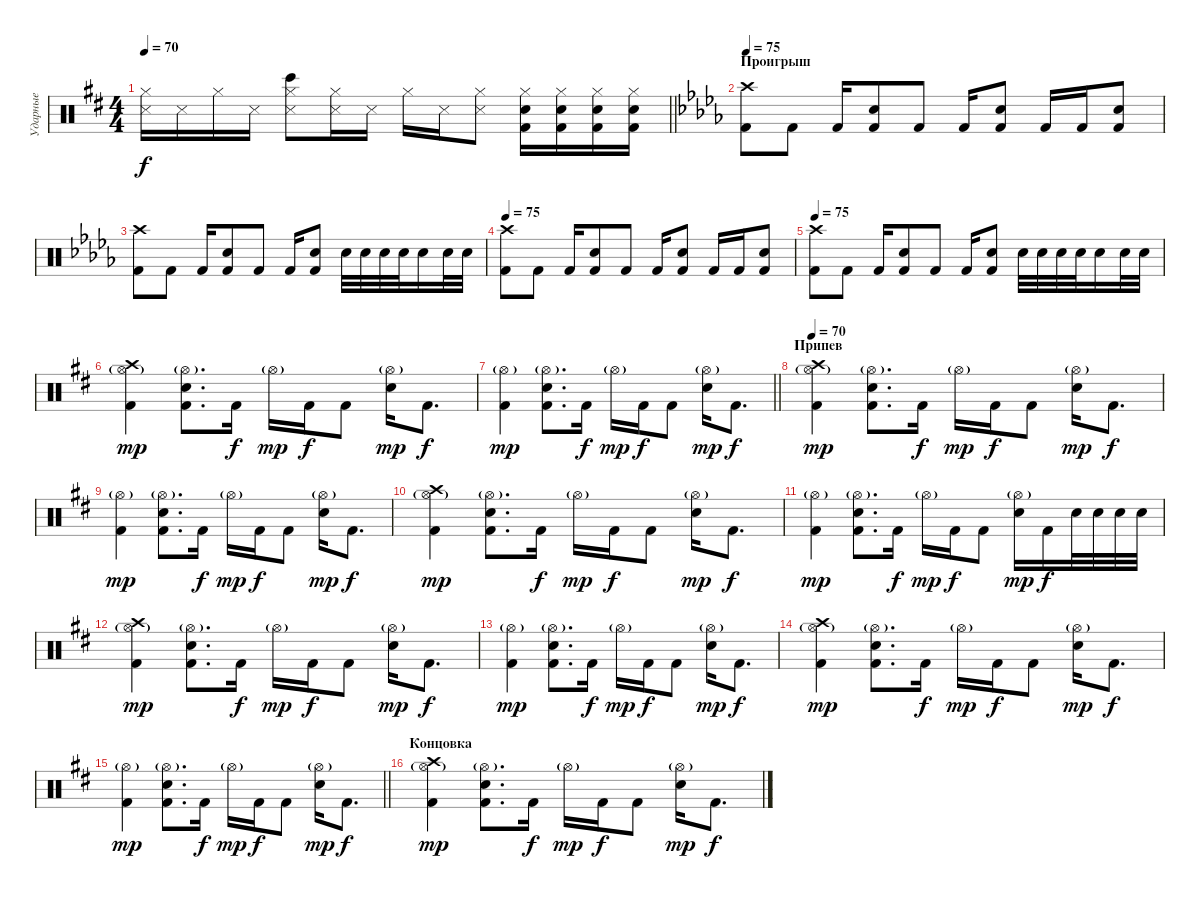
\track ("Ударные" "Ударные") {instrument percussion}
\staff {score}
\articulation defaults
\ts (4 4)
\tempo 70
\clef neutral
\barLineRight lightlight
\ks bminor
("Hi-Hat (closed)" "Snare (side stick) 3").16{dy f} "Snare (side stick) 3".16 "Hi-Hat (closed)".16 "Snare (side stick) 3".16 ("Hi-Hat (closed)" "Bongo High (hit)" "Snare (side stick) 3").8 ("Hi-Hat (closed)" "Snare (side stick) 3").16 "Snare (side stick) 3".16 "Hi-Hat (closed)".16 "Snare (side stick) 3".16 ("Hi-Hat (closed)" "Snare (side stick) 3").8 ("Hi-Hat (closed)" "Electric Snare (hit)" "Kick (hit) 2").16 ("Hi-Hat (closed)" "Electric Snare (hit)" "Kick (hit) 2").16 ("Hi-Hat (closed)" "Electric Snare (hit)" "Kick (hit) 2").16 ("Hi-Hat (closed)" "Electric Snare (hit)" "Kick (hit) 2").16 |
\section ("" "Проигрыш")
\tempo 75
\ks bbminor
("Crash high (hit)" "Kick (hit) 2").8 "Kick (hit) 2".8 "Kick (hit) 2".16 ("Electric Snare (hit)" "Kick (hit) 2").8 "Kick (hit) 2".8 "Kick (hit) 2".16 ("Electric Snare (hit)" "Kick (hit) 2").8 "Kick (hit) 2".16 "Kick (hit) 2".16 ("Electric Snare (hit)" "Kick (hit) 2").8 |
("Crash high (hit)" "Kick (hit) 2").8 "Kick (hit) 2".8 "Kick (hit) 2".16 ("Electric Snare (hit)" "Kick (hit) 2").8 "Kick (hit) 2".8 "Kick (hit) 2".16 ("Electric Snare (hit)" "Kick (hit) 2").8 "Electric Snare (hit)".32 "Electric Snare (hit)".32 "Electric Snare (hit)".32 "Electric Snare (hit)".32 "Electric Snare (hit)".16 "Electric Snare (hit)".32 "Electric Snare (hit)".32 |
\tempo 75
("Crash high (hit)" "Kick (hit) 2").8 "Kick (hit) 2".8 "Kick (hit) 2".16 ("Electric Snare (hit)" "Kick (hit) 2").8 "Kick (hit) 2".8 "Kick (hit) 2".16 ("Electric Snare (hit)" "Kick (hit) 2").8 "Kick (hit) 2".16 "Kick (hit) 2".16 ("Electric Snare (hit)" "Kick (hit) 2").8 |
\tempo 75
("Crash high (hit)" "Kick (hit) 2").8 "Kick (hit) 2".8 "Kick (hit) 2".16 ("Electric Snare (hit)" "Kick (hit) 2").8 "Kick (hit) 2".8 "Kick (hit) 2".16 ("Electric Snare (hit)" "Kick (hit) 2").8 "Electric Snare (hit)".32 "Electric Snare (hit)".32 "Electric Snare (hit)".32 "Electric Snare (hit)".32 "Electric Snare (hit)".16 "Electric Snare (hit)".32 "Electric Snare (hit)".32 |
\ks bminor
("Crash high (hit)" "Hi-Hat (open)"{g} "Kick (hit) 2").4{dy mp} ("Hi-Hat (open)"{g} "Electric Snare (hit)" "Kick (hit) 2").8{d} "Kick (hit) 2".16{dy f} "Hi-Hat (open)"{g}.16{dy mp} "Kick (hit) 2".16{dy f} "Kick (hit) 2".8 ("Hi-Hat (open)"{g} "Electric Snare (hit)").16{dy mp} "Kick (hit) 2".8{d dy f} |
\barLineRight lightlight
("Hi-Hat (open)"{g} "Kick (hit) 2").4{dy mp} ("Hi-Hat (open)"{g} "Electric Snare (hit)" "Kick (hit) 2").8{d} "Kick (hit) 2".16{dy f} "Hi-Hat (open)"{g}.16{dy mp} "Kick (hit) 2".16{dy f} "Kick (hit) 2".8 ("Hi-Hat (open)"{g} "Electric Snare (hit)").16{dy mp} "Kick (hit) 2".8{d dy f} |
\section ("" "Припев")
\tempo 70
("Crash high (hit)" "Hi-Hat (open)"{g} "Kick (hit) 2").4{dy mp} ("Hi-Hat (open)"{g} "Electric Snare (hit)" "Kick (hit) 2").8{d} "Kick (hit) 2".16{dy f} "Hi-Hat (open)"{g}.16{dy mp} "Kick (hit) 2".16{dy f} "Kick (hit) 2".8 ("Hi-Hat (open)"{g} "Electric Snare (hit)").16{dy mp} "Kick (hit) 2".8{d dy f} |
("Hi-Hat (open)"{g} "Kick (hit) 2").4{dy mp} ("Hi-Hat (open)"{g} "Electric Snare (hit)" "Kick (hit) 2").8{d} "Kick (hit) 2".16{dy f} "Hi-Hat (open)"{g}.16{dy mp} "Kick (hit) 2".16{dy f} "Kick (hit) 2".8 ("Hi-Hat (open)"{g} "Electric Snare (hit)").16{dy mp} "Kick (hit) 2".8{d dy f} |
("Crash high (hit)" "Hi-Hat (open)"{g} "Kick (hit) 2").4{dy mp} ("Hi-Hat (open)"{g} "Electric Snare (hit)" "Kick (hit) 2").8{d} "Kick (hit) 2".16{dy f} "Hi-Hat (open)"{g}.16{dy mp} "Kick (hit) 2".16{dy f} "Kick (hit) 2".8 ("Hi-Hat (open)"{g} "Electric Snare (hit)").16{dy mp} "Kick (hit) 2".8{d dy f} |
("Hi-Hat (open)"{g} "Kick (hit) 2").4{dy mp} ("Hi-Hat (open)"{g} "Electric Snare (hit)" "Kick (hit) 2").8{d} "Kick (hit) 2".16{dy f} "Hi-Hat (open)"{g}.16{dy mp} "Kick (hit) 2".16{dy f} "Kick (hit) 2".8 ("Hi-Hat (open)"{g} "Electric Snare (hit)").16{dy mp} "Kick (hit) 2".16{dy f} "Electric Snare (hit)".32 "Electric Snare (hit)".32 "Electric Snare (hit)".32 "Electric Snare (hit)".32 |
("Crash high (hit)" "Hi-Hat (open)"{g} "Kick (hit) 2").4{dy mp} ("Hi-Hat (open)"{g} "Electric Snare (hit)" "Kick (hit) 2").8{d} "Kick (hit) 2".16{dy f} "Hi-Hat (open)"{g}.16{dy mp} "Kick (hit) 2".16{dy f} "Kick (hit) 2".8 ("Hi-Hat (open)"{g} "Electric Snare (hit)").16{dy mp} "Kick (hit) 2".8{d dy f} |
("Hi-Hat (open)"{g} "Kick (hit) 2").4{dy mp} ("Hi-Hat (open)"{g} "Electric Snare (hit)" "Kick (hit) 2").8{d} "Kick (hit) 2".16{dy f} "Hi-Hat (open)"{g}.16{dy mp} "Kick (hit) 2".16{dy f} "Kick (hit) 2".8 ("Hi-Hat (open)"{g} "Electric Snare (hit)").16{dy mp} "Kick (hit) 2".8{d dy f} |
("Crash high (hit)" "Hi-Hat (open)"{g} "Kick (hit) 2").4{dy mp} ("Hi-Hat (open)"{g} "Electric Snare (hit)" "Kick (hit) 2").8{d} "Kick (hit) 2".16{dy f} "Hi-Hat (open)"{g}.16{dy mp} "Kick (hit) 2".16{dy f} "Kick (hit) 2".8 ("Hi-Hat (open)"{g} "Electric Snare (hit)").16{dy mp} "Kick (hit) 2".8{d dy f} |
\barLineRight lightlight
("Hi-Hat (open)"{g} "Kick (hit) 2").4{dy mp} ("Hi-Hat (open)"{g} "Electric Snare (hit)" "Kick (hit) 2").8{d} "Kick (hit) 2".16{dy f} "Hi-Hat (open)"{g}.16{dy mp} "Kick (hit) 2".16{dy f} "Kick (hit) 2".8 ("Hi-Hat (open)"{g} "Electric Snare (hit)").16{dy mp} "Kick (hit) 2".8{d dy f} |
\section ("" "Концовка")
("Crash high (hit)" "Hi-Hat (open)"{g} "Kick (hit) 2").4{dy mp} ("Hi-Hat (open)"{g} "Electric Snare (hit)" "Kick (hit) 2").8{d} "Kick (hit) 2".16{dy f} "Hi-Hat (open)"{g}.16{dy mp} "Kick (hit) 2".16{dy f} "Kick (hit) 2".8 ("Hi-Hat (open)"{g} "Electric Snare (hit)").16{dy mp} "Kick (hit) 2".8{d dy f}
